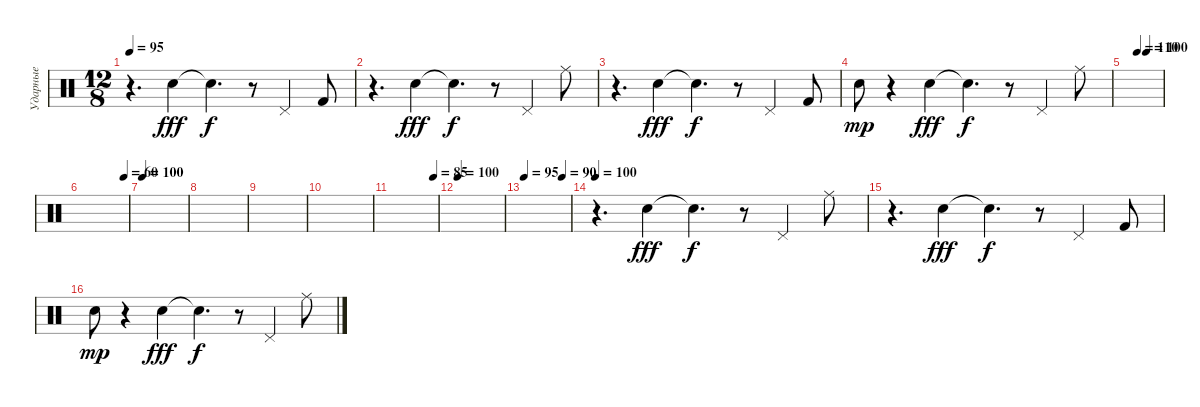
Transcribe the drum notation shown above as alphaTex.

\track ("Ударные" "Ударные") {instrument percussion}
\staff {score}
\articulation defaults
\ts (12 8)
\tempo 95
\clef neutral
\ks c
r.4{d dy f} "Electric Snare (hit)".4{dy fff} "Snare (hit)"{t}.4{d dy f} r.8 "Pedal Hi-Hat (hit)".4 "Kick (hit) 2".8 |
r.4{d} "Electric Snare (hit)".4{dy fff} "Snare (hit)"{t}.4{d dy f} r.8 "Pedal Hi-Hat (hit)".4 "Ride (middle)".8 |
r.4{d} "Electric Snare (hit)".4{dy fff} "Snare (hit)"{t}.4{d dy f} r.8 "Pedal Hi-Hat (hit)".4 "Kick (hit) 2".8 |
"Snare (hit) 2".8{dy mp} r.4 "Electric Snare (hit)".4{dy fff} "Snare (hit)"{t}.4{d dy f} r.8 "Pedal Hi-Hat (hit)".4 "Ride (middle)".8 |
\tempo (110 0.3333333333333333)
\tempo (100 0.5833333333333334)
|
\tempo (60 0.9166666666666666)
|
\tempo 100
|
|
|
|
\tempo (85 0.9166666666666666)
|
\tempo 100
|
\tempo 95
\tempo (90 0.8333333333333334)
|
\tempo 100
r.4{d} "Electric Snare (hit)".4{dy fff} "Snare (hit)"{t}.4{d dy f} r.8 "Pedal Hi-Hat (hit)".4 "Ride (middle)".8 |
r.4{d} "Electric Snare (hit)".4{dy fff} "Snare (hit)"{t}.4{d dy f} r.8 "Pedal Hi-Hat (hit)".4 "Kick (hit) 2".8 |
"Snare (hit) 2".8{dy mp} r.4 "Electric Snare (hit)".4{dy fff} "Snare (hit)"{t}.4{d dy f} r.8 "Pedal Hi-Hat (hit)".4 "Ride (middle)".8
